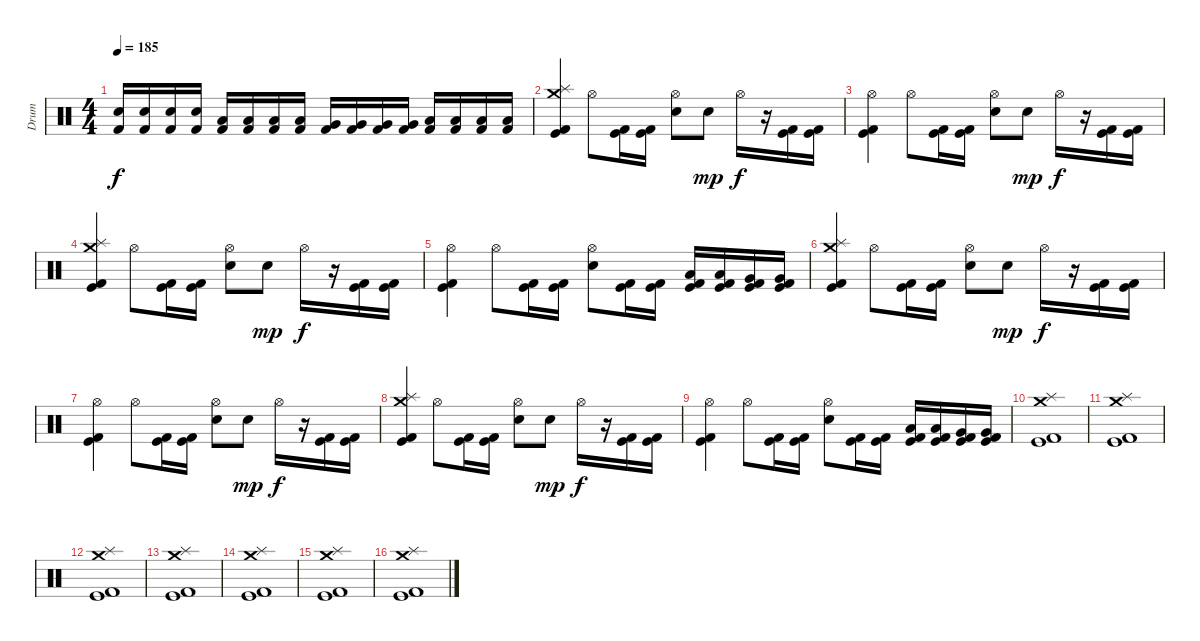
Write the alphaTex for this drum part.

\track ("Drum" "Drum") {instrument percussion}
\staff {score}
\articulation defaults
\ts (4 4)
\tempo 185
\clef neutral
\ks c
("Snare (hit) 2" "Kick (hit) 2").16{dy f} ("Snare (hit) 2" "Kick (hit) 2").16 ("Snare (hit) 2" "Kick (hit) 2").16 ("Snare (hit) 2" "Kick (hit) 2").16 ("Low Tom (hit)" "Kick (hit) 2").16 ("Low Tom (hit)" "Kick (hit) 2").16 ("Low Tom (hit)" "Kick (hit) 2").16 ("Low Tom (hit)" "Kick (hit) 2").16 ("Very Low Tom (hit)" "Kick (hit) 2").16 ("Very Low Tom (hit)" "Kick (hit) 2").16 ("Very Low Tom (hit)" "Kick (hit) 2").16 ("Very Low Tom (hit)" "Kick (hit) 2").16 ("Low Floor Tom (hit)" "Kick (hit) 2").16 ("Low Floor Tom (hit)" "Kick (hit) 2").16 ("Low Floor Tom (hit)" "Kick (hit) 2").16 ("Low Floor Tom (hit)" "Kick (hit) 2").16 |
("Crash medium (hit)" "Splash (hit)" "Kick (hit)" "Kick (hit) 2").4 "Hi-Hat (open)".8 ("Kick (hit)" "Kick (hit) 2").16 ("Kick (hit)" "Kick (hit) 2").16 ("Hi-Hat (open)" "Snare (hit) 2").8 "Snare (hit) 2".8{dy mp} "Hi-Hat (open)".16{dy f} r.16 ("Kick (hit)" "Kick (hit) 2").16 ("Kick (hit)" "Kick (hit) 2").16 |
("Hi-Hat (open)" "Kick (hit)" "Kick (hit) 2").4 "Hi-Hat (open)".8 ("Kick (hit)" "Kick (hit) 2").16 ("Kick (hit)" "Kick (hit) 2").16 ("Hi-Hat (open)" "Snare (hit) 2").8 "Snare (hit) 2".8{dy mp} "Hi-Hat (open)".16{dy f} r.16 ("Kick (hit)" "Kick (hit) 2").16 ("Kick (hit)" "Kick (hit) 2").16 |
("Crash medium (hit)" "Splash (hit)" "Kick (hit)" "Kick (hit) 2").4 "Hi-Hat (open)".8 ("Kick (hit)" "Kick (hit) 2").16 ("Kick (hit)" "Kick (hit) 2").16 ("Hi-Hat (open)" "Snare (hit) 2").8 "Snare (hit) 2".8{dy mp} "Hi-Hat (open)".16{dy f} r.16 ("Kick (hit)" "Kick (hit) 2").16 ("Kick (hit)" "Kick (hit) 2").16 |
("Hi-Hat (open)" "Kick (hit)" "Kick (hit) 2").4 "Hi-Hat (open)".8 ("Kick (hit)" "Kick (hit) 2").16 ("Kick (hit)" "Kick (hit) 2").16 ("Hi-Hat (open)" "Snare (hit) 2").8 ("Kick (hit)" "Kick (hit) 2").16 ("Kick (hit)" "Kick (hit) 2").16 ("Low Tom (hit)" "Kick (hit)" "Kick (hit) 2").16 ("Low Tom (hit)" "Kick (hit)" "Kick (hit) 2").16 ("Very Low Tom (hit)" "Kick (hit)" "Kick (hit) 2").16 ("Very Low Tom (hit)" "Kick (hit)" "Kick (hit) 2").16 |
("Crash medium (hit)" "Splash (hit)" "Kick (hit)" "Kick (hit) 2").4 "Hi-Hat (open)".8 ("Kick (hit)" "Kick (hit) 2").16 ("Kick (hit)" "Kick (hit) 2").16 ("Hi-Hat (open)" "Snare (hit) 2").8 "Snare (hit) 2".8{dy mp} "Hi-Hat (open)".16{dy f} r.16 ("Kick (hit)" "Kick (hit) 2").16 ("Kick (hit)" "Kick (hit) 2").16 |
("Hi-Hat (open)" "Kick (hit)" "Kick (hit) 2").4 "Hi-Hat (open)".8 ("Kick (hit)" "Kick (hit) 2").16 ("Kick (hit)" "Kick (hit) 2").16 ("Hi-Hat (open)" "Snare (hit) 2").8 "Snare (hit) 2".8{dy mp} "Hi-Hat (open)".16{dy f} r.16 ("Kick (hit)" "Kick (hit) 2").16 ("Kick (hit)" "Kick (hit) 2").16 |
("Crash medium (hit)" "Splash (hit)" "Kick (hit)" "Kick (hit) 2").4 "Hi-Hat (open)".8 ("Kick (hit)" "Kick (hit) 2").16 ("Kick (hit)" "Kick (hit) 2").16 ("Hi-Hat (open)" "Snare (hit) 2").8 "Snare (hit) 2".8{dy mp} "Hi-Hat (open)".16{dy f} r.16 ("Kick (hit)" "Kick (hit) 2").16 ("Kick (hit)" "Kick (hit) 2").16 |
("Hi-Hat (open)" "Kick (hit)" "Kick (hit) 2").4 "Hi-Hat (open)".8 ("Kick (hit)" "Kick (hit) 2").16 ("Kick (hit)" "Kick (hit) 2").16 ("Hi-Hat (open)" "Snare (hit) 2").8 ("Kick (hit)" "Kick (hit) 2").16 ("Kick (hit)" "Kick (hit) 2").16 ("Low Tom (hit)" "Kick (hit)" "Kick (hit) 2").16 ("Low Tom (hit)" "Kick (hit)" "Kick (hit) 2").16 ("Very Low Tom (hit)" "Kick (hit)" "Kick (hit) 2").16 ("Very Low Tom (hit)" "Kick (hit)" "Kick (hit) 2").16 |
("Crash medium (hit)" "Splash (hit)" "Kick (hit)" "Kick (hit) 2").1 |
("Crash medium (hit)" "Splash (hit)" "Kick (hit)" "Kick (hit) 2").1 |
("Crash medium (hit)" "Splash (hit)" "Kick (hit)" "Kick (hit) 2").1 |
("Crash medium (hit)" "Splash (hit)" "Kick (hit)" "Kick (hit) 2").1 |
("Crash medium (hit)" "Splash (hit)" "Kick (hit)" "Kick (hit) 2").1 |
("Crash medium (hit)" "Splash (hit)" "Kick (hit)" "Kick (hit) 2").1 |
("Crash medium (hit)" "Splash (hit)" "Kick (hit)" "Kick (hit) 2").1
